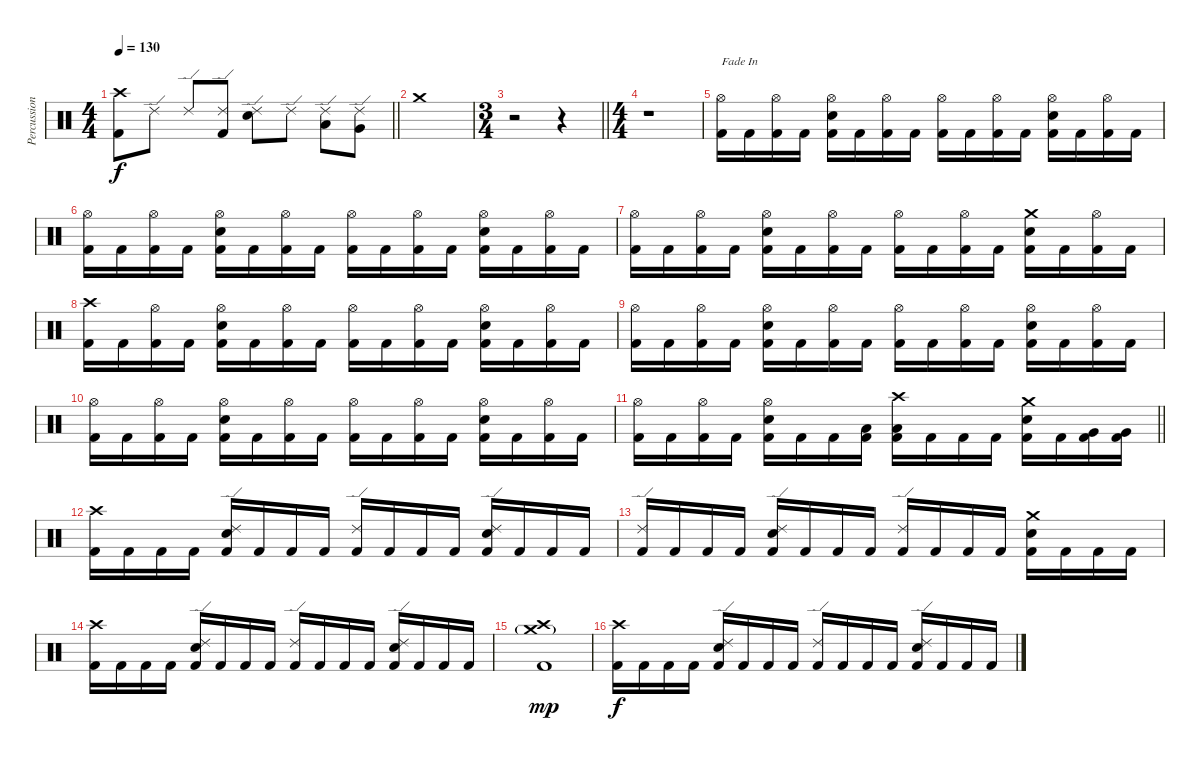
\track ("Percussion" "Percussion") {instrument percussion}
\staff {score}
\articulation defaults
\ts (4 4)
\tempo 130
\clef neutral
\barLineRight lightlight
\ks c
("Crash high (hit)" "Kick (hit) 2").8{dy f} "Ride (edge) 2".8 "Ride (edge) 2".8 ("Ride (edge) 2" "Kick (hit) 2").8 ("Ride (edge) 2" "Electric Snare (hit)").8 "Ride (edge) 2".8 ("Ride (edge) 2" "Low Tom (hit)").8 ("Ride (edge) 2" "Very Low Tom (hit)").8 |
"Crash medium (hit)".1 |
\ts (3 4)
\barLineRight lightlight
r.2 r.4 |
\ts (4 4)
r.1{volume 0} |
("Hi-Hat (open)" "Kick (hit) 2").16{txt "Fade In" volume 15} "Kick (hit) 2".16 ("Hi-Hat (open)" "Kick (hit) 2").16 "Kick (hit) 2".16 ("Hi-Hat (open)" "Electric Snare (hit)" "Kick (hit) 2").16 "Kick (hit) 2".16 ("Hi-Hat (open)" "Kick (hit) 2").16 "Kick (hit) 2".16 ("Hi-Hat (open)" "Kick (hit) 2").16 "Kick (hit) 2".16 ("Hi-Hat (open)" "Kick (hit) 2").16 "Kick (hit) 2".16 ("Hi-Hat (open)" "Electric Snare (hit)" "Kick (hit) 2").16 "Kick (hit) 2".16 ("Hi-Hat (open)" "Kick (hit) 2").16 "Kick (hit) 2".16 |
("Hi-Hat (open)" "Kick (hit) 2").16 "Kick (hit) 2".16 ("Hi-Hat (open)" "Kick (hit) 2").16 "Kick (hit) 2".16 ("Hi-Hat (open)" "Electric Snare (hit)" "Kick (hit) 2").16 "Kick (hit) 2".16 ("Hi-Hat (open)" "Kick (hit) 2").16 "Kick (hit) 2".16 ("Hi-Hat (open)" "Kick (hit) 2").16 "Kick (hit) 2".16 ("Hi-Hat (open)" "Kick (hit) 2").16 "Kick (hit) 2".16 ("Hi-Hat (open)" "Electric Snare (hit)" "Kick (hit) 2").16 "Kick (hit) 2".16 ("Hi-Hat (open)" "Kick (hit) 2").16 "Kick (hit) 2".16 |
("Hi-Hat (open)" "Kick (hit) 2").16 "Kick (hit) 2".16 ("Hi-Hat (open)" "Kick (hit) 2").16 "Kick (hit) 2".16 ("Hi-Hat (open)" "Electric Snare (hit)" "Kick (hit) 2").16 "Kick (hit) 2".16 ("Hi-Hat (open)" "Kick (hit) 2").16 "Kick (hit) 2".16 ("Hi-Hat (open)" "Kick (hit) 2").16 "Kick (hit) 2".16 ("Hi-Hat (open)" "Kick (hit) 2").16 "Kick (hit) 2".16 ("Crash medium (hit)" "Electric Snare (hit)" "Kick (hit) 2").16 "Kick (hit) 2".16 ("Hi-Hat (open)" "Kick (hit) 2").16 "Kick (hit) 2".16 |
("Crash high (hit)" "Kick (hit) 2").16 "Kick (hit) 2".16 ("Hi-Hat (open)" "Kick (hit) 2").16 "Kick (hit) 2".16 ("Hi-Hat (open)" "Electric Snare (hit)" "Kick (hit) 2").16 "Kick (hit) 2".16 ("Hi-Hat (open)" "Kick (hit) 2").16 "Kick (hit) 2".16 ("Hi-Hat (open)" "Kick (hit) 2").16 "Kick (hit) 2".16 ("Hi-Hat (open)" "Kick (hit) 2").16 "Kick (hit) 2".16 ("Hi-Hat (open)" "Electric Snare (hit)" "Kick (hit) 2").16 "Kick (hit) 2".16 ("Hi-Hat (open)" "Kick (hit) 2").16 "Kick (hit) 2".16 |
("Hi-Hat (open)" "Kick (hit) 2").16 "Kick (hit) 2".16 ("Hi-Hat (open)" "Kick (hit) 2").16 "Kick (hit) 2".16 ("Hi-Hat (open)" "Electric Snare (hit)" "Kick (hit) 2").16 "Kick (hit) 2".16 ("Hi-Hat (open)" "Kick (hit) 2").16 "Kick (hit) 2".16 ("Hi-Hat (open)" "Kick (hit) 2").16 "Kick (hit) 2".16 ("Hi-Hat (open)" "Kick (hit) 2").16 "Kick (hit) 2".16 ("Hi-Hat (open)" "Electric Snare (hit)" "Kick (hit) 2").16 "Kick (hit) 2".16 ("Hi-Hat (open)" "Kick (hit) 2").16 "Kick (hit) 2".16 |
("Hi-Hat (open)" "Kick (hit) 2").16 "Kick (hit) 2".16 ("Hi-Hat (open)" "Kick (hit) 2").16 "Kick (hit) 2".16 ("Hi-Hat (open)" "Electric Snare (hit)" "Kick (hit) 2").16 "Kick (hit) 2".16 ("Hi-Hat (open)" "Kick (hit) 2").16 "Kick (hit) 2".16 ("Hi-Hat (open)" "Kick (hit) 2").16 "Kick (hit) 2".16 ("Hi-Hat (open)" "Kick (hit) 2").16 "Kick (hit) 2".16 ("Hi-Hat (open)" "Electric Snare (hit)" "Kick (hit) 2").16 "Kick (hit) 2".16 ("Hi-Hat (open)" "Kick (hit) 2").16 "Kick (hit) 2".16 |
\barLineRight lightlight
("Hi-Hat (open)" "Kick (hit) 2").16 "Kick (hit) 2".16 ("Hi-Hat (open)" "Kick (hit) 2").16 "Kick (hit) 2".16 ("Hi-Hat (open)" "Electric Snare (hit)" "Kick (hit) 2").16 "Kick (hit) 2".16 "Kick (hit) 2".16 ("Low Tom (hit)" "Kick (hit) 2").16 ("Crash high (hit)" "Low Tom (hit)" "Kick (hit) 2").16 "Kick (hit) 2".16 "Kick (hit) 2".16 "Kick (hit) 2".16 ("Crash medium (hit)" "Electric Snare (hit)" "Kick (hit) 2").16 "Kick (hit) 2".16 ("Very Low Tom (hit)" "Kick (hit) 2").16 ("Very Low Tom (hit)" "Kick (hit) 2").16 |
("Crash high (hit)" "Kick (hit) 2").16 "Kick (hit) 2".16 "Kick (hit) 2".16 "Kick (hit) 2".16 ("Ride (edge) 2" "Electric Snare (hit)" "Kick (hit) 2").16 "Kick (hit) 2".16 "Kick (hit) 2".16 "Kick (hit) 2".16 ("Ride (edge) 2" "Kick (hit) 2").16 "Kick (hit) 2".16 "Kick (hit) 2".16 "Kick (hit) 2".16 ("Ride (edge) 2" "Electric Snare (hit)" "Kick (hit) 2").16 "Kick (hit) 2".16 "Kick (hit) 2".16 "Kick (hit) 2".16 |
("Ride (edge) 2" "Kick (hit) 2").16 "Kick (hit) 2".16 "Kick (hit) 2".16 "Kick (hit) 2".16 ("Ride (edge) 2" "Electric Snare (hit)" "Kick (hit) 2").16 "Kick (hit) 2".16 "Kick (hit) 2".16 "Kick (hit) 2".16 ("Ride (edge) 2" "Kick (hit) 2").16 "Kick (hit) 2".16 "Kick (hit) 2".16 "Kick (hit) 2".16 ("Crash medium (hit)" "Electric Snare (hit)" "Kick (hit) 2").16 "Kick (hit) 2".16 "Kick (hit) 2".16 "Kick (hit) 2".16 |
("Crash high (hit)" "Kick (hit) 2").16 "Kick (hit) 2".16 "Kick (hit) 2".16 "Kick (hit) 2".16 ("Ride (edge) 2" "Electric Snare (hit)" "Kick (hit) 2").16 "Kick (hit) 2".16 "Kick (hit) 2".16 "Kick (hit) 2".16 ("Ride (edge) 2" "Kick (hit) 2").16 "Kick (hit) 2".16 "Kick (hit) 2".16 "Kick (hit) 2".16 ("Ride (edge) 2" "Electric Snare (hit)" "Kick (hit) 2").16 "Kick (hit) 2".16 "Kick (hit) 2".16 "Kick (hit) 2".16 |
("Crash high (hit)" "Crash medium (hit)"{g} "Kick (hit) 2").1{dy mp} |
("Crash high (hit)" "Kick (hit) 2").16{dy f} "Kick (hit) 2".16 "Kick (hit) 2".16 "Kick (hit) 2".16 ("Ride (edge) 2" "Electric Snare (hit)" "Kick (hit) 2").16 "Kick (hit) 2".16 "Kick (hit) 2".16 "Kick (hit) 2".16 ("Ride (edge) 2" "Kick (hit) 2").16 "Kick (hit) 2".16 "Kick (hit) 2".16 "Kick (hit) 2".16 ("Ride (edge) 2" "Electric Snare (hit)" "Kick (hit) 2").16 "Kick (hit) 2".16 "Kick (hit) 2".16 "Kick (hit) 2".16
